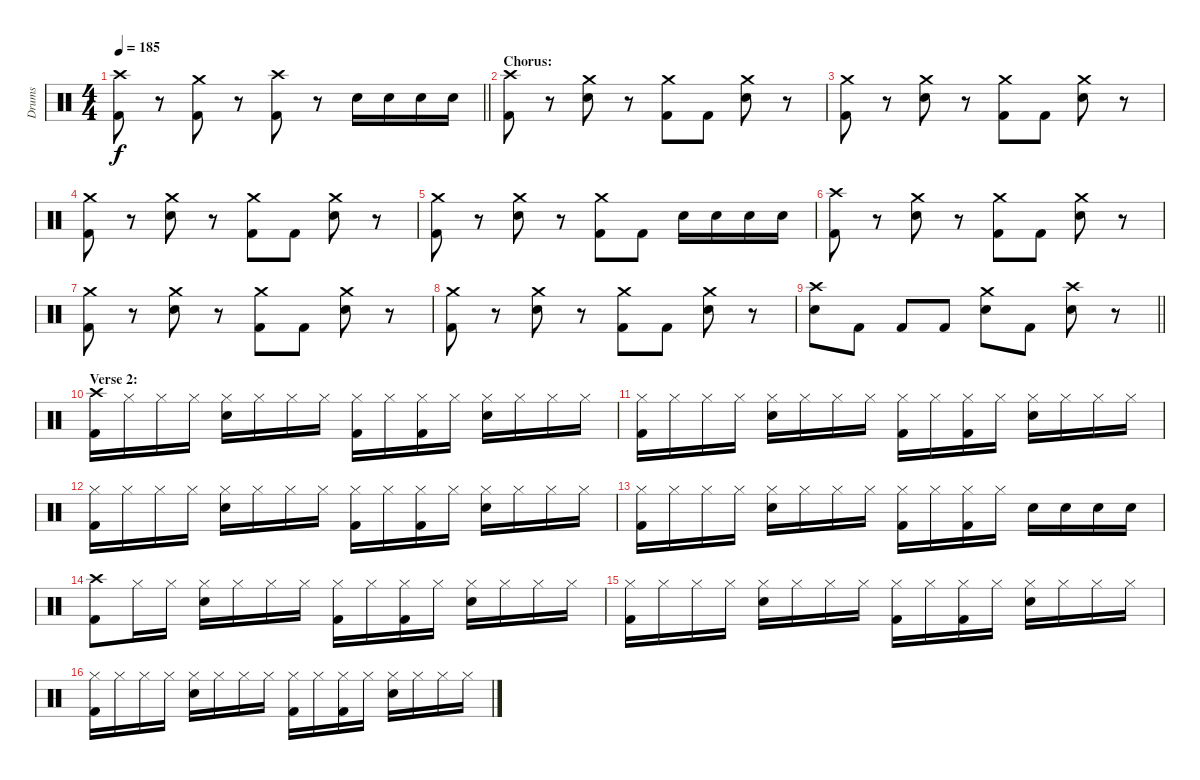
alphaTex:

\track ("Drums" "Drums") {instrument percussion}
\staff {score}
\articulation defaults
\ts (4 4)
\tempo 185
\clef neutral
\barLineRight lightlight
\ks c
("Crash high (hit)" "Kick (hit) 2").8{dy f} r.8 ("Crash medium (hit)" "Kick (hit) 2").8 r.8 ("Crash high (hit)" "Kick (hit) 2").8 r.8 "Snare (hit) 2".16 "Snare (hit) 2".16 "Snare (hit) 2".16 "Snare (hit) 2".16 |
\section ("" "Chorus:")
("Crash high (hit)" "Kick (hit) 2").8 r.8 ("Crash medium (hit)" "Snare (hit) 2").8 r.8 ("Crash medium (hit)" "Kick (hit) 2").8 "Kick (hit) 2".8 ("Crash medium (hit)" "Snare (hit) 2").8 r.8 |
("Crash medium (hit)" "Kick (hit) 2").8 r.8 ("Crash medium (hit)" "Snare (hit) 2").8 r.8 ("Crash medium (hit)" "Kick (hit) 2").8 "Kick (hit) 2".8 ("Crash medium (hit)" "Snare (hit) 2").8 r.8 |
("Crash medium (hit)" "Kick (hit) 2").8 r.8 ("Crash medium (hit)" "Snare (hit) 2").8 r.8 ("Crash medium (hit)" "Kick (hit) 2").8 "Kick (hit) 2".8 ("Crash medium (hit)" "Snare (hit) 2").8 r.8 |
("Crash medium (hit)" "Kick (hit) 2").8 r.8 ("Crash medium (hit)" "Snare (hit) 2").8 r.8 ("Crash medium (hit)" "Kick (hit) 2").8 "Kick (hit) 2".8 "Snare (hit) 2".16 "Snare (hit) 2".16 "Snare (hit) 2".16 "Snare (hit) 2".16 |
("Crash high (hit)" "Kick (hit) 2").8 r.8 ("Crash medium (hit)" "Snare (hit) 2").8 r.8 ("Crash medium (hit)" "Kick (hit) 2").8 "Kick (hit) 2".8 ("Crash medium (hit)" "Snare (hit) 2").8 r.8 |
("Crash medium (hit)" "Kick (hit) 2").8 r.8 ("Crash medium (hit)" "Snare (hit) 2").8 r.8 ("Crash medium (hit)" "Kick (hit) 2").8 "Kick (hit) 2".8 ("Crash medium (hit)" "Snare (hit) 2").8 r.8 |
("Crash medium (hit)" "Kick (hit) 2").8 r.8 ("Crash medium (hit)" "Snare (hit) 2").8 r.8 ("Crash medium (hit)" "Kick (hit) 2").8 "Kick (hit) 2".8 ("Crash medium (hit)" "Snare (hit) 2").8 r.8 |
\barLineRight lightlight
("Crash high (hit)" "Snare (hit) 2").8 "Kick (hit) 2".8 "Kick (hit) 2".8 "Kick (hit) 2".8 ("Crash medium (hit)" "Snare (hit) 2").8 "Kick (hit) 2".8 ("Crash high (hit)" "Snare (hit) 2").8 r.8 |
\section ("" "Verse 2:")
("Crash high (hit)" "Kick (hit) 2").16 "Hi-Hat (closed)".16 "Hi-Hat (closed)".16 "Hi-Hat (closed)".16 ("Hi-Hat (closed)" "Snare (hit) 2").16 "Hi-Hat (closed)".16 "Hi-Hat (closed)".16 "Hi-Hat (closed)".16 ("Hi-Hat (closed)" "Kick (hit) 2").16 "Hi-Hat (closed)".16 ("Hi-Hat (closed)" "Kick (hit) 2").16 "Hi-Hat (closed)".16 ("Hi-Hat (closed)" "Snare (hit) 2").16 "Hi-Hat (closed)".16 "Hi-Hat (closed)".16 "Hi-Hat (closed)".16 |
("Hi-Hat (closed)" "Kick (hit) 2").16 "Hi-Hat (closed)".16 "Hi-Hat (closed)".16 "Hi-Hat (closed)".16 ("Hi-Hat (closed)" "Snare (hit) 2").16 "Hi-Hat (closed)".16 "Hi-Hat (closed)".16 "Hi-Hat (closed)".16 ("Hi-Hat (closed)" "Kick (hit) 2").16 "Hi-Hat (closed)".16 ("Hi-Hat (closed)" "Kick (hit) 2").16 "Hi-Hat (closed)".16 ("Hi-Hat (closed)" "Snare (hit) 2").16 "Hi-Hat (closed)".16 "Hi-Hat (closed)".16 "Hi-Hat (closed)".16 |
("Hi-Hat (closed)" "Kick (hit) 2").16 "Hi-Hat (closed)".16 "Hi-Hat (closed)".16 "Hi-Hat (closed)".16 ("Hi-Hat (closed)" "Snare (hit) 2").16 "Hi-Hat (closed)".16 "Hi-Hat (closed)".16 "Hi-Hat (closed)".16 ("Hi-Hat (closed)" "Kick (hit) 2").16 "Hi-Hat (closed)".16 ("Hi-Hat (closed)" "Kick (hit) 2").16 "Hi-Hat (closed)".16 ("Hi-Hat (closed)" "Snare (hit) 2").16 "Hi-Hat (closed)".16 "Hi-Hat (closed)".16 "Hi-Hat (closed)".16 |
("Hi-Hat (closed)" "Kick (hit) 2").16 "Hi-Hat (closed)".16 "Hi-Hat (closed)".16 "Hi-Hat (closed)".16 ("Hi-Hat (closed)" "Snare (hit) 2").16 "Hi-Hat (closed)".16 "Hi-Hat (closed)".16 "Hi-Hat (closed)".16 ("Hi-Hat (closed)" "Kick (hit) 2").16 "Hi-Hat (closed)".16 ("Hi-Hat (closed)" "Kick (hit) 2").16 "Hi-Hat (closed)".16 "Snare (hit) 2".16 "Snare (hit) 2".16 "Snare (hit) 2".16 "Snare (hit) 2".16 |
("Crash high (hit)" "Kick (hit) 2").8 "Hi-Hat (closed)".16 "Hi-Hat (closed)".16 ("Hi-Hat (closed)" "Snare (hit) 2").16 "Hi-Hat (closed)".16 "Hi-Hat (closed)".16 "Hi-Hat (closed)".16 ("Hi-Hat (closed)" "Kick (hit) 2").16 "Hi-Hat (closed)".16 ("Hi-Hat (closed)" "Kick (hit) 2").16 "Hi-Hat (closed)".16 ("Hi-Hat (closed)" "Snare (hit) 2").16 "Hi-Hat (closed)".16 "Hi-Hat (closed)".16 "Hi-Hat (closed)".16 |
("Hi-Hat (closed)" "Kick (hit) 2").16 "Hi-Hat (closed)".16 "Hi-Hat (closed)".16 "Hi-Hat (closed)".16 ("Hi-Hat (closed)" "Snare (hit) 2").16 "Hi-Hat (closed)".16 "Hi-Hat (closed)".16 "Hi-Hat (closed)".16 ("Hi-Hat (closed)" "Kick (hit) 2").16 "Hi-Hat (closed)".16 ("Hi-Hat (closed)" "Kick (hit) 2").16 "Hi-Hat (closed)".16 ("Hi-Hat (closed)" "Snare (hit) 2").16 "Hi-Hat (closed)".16 "Hi-Hat (closed)".16 "Hi-Hat (closed)".16 |
("Hi-Hat (closed)" "Kick (hit) 2").16 "Hi-Hat (closed)".16 "Hi-Hat (closed)".16 "Hi-Hat (closed)".16 ("Hi-Hat (closed)" "Snare (hit) 2").16 "Hi-Hat (closed)".16 "Hi-Hat (closed)".16 "Hi-Hat (closed)".16 ("Hi-Hat (closed)" "Kick (hit) 2").16 "Hi-Hat (closed)".16 ("Hi-Hat (closed)" "Kick (hit) 2").16 "Hi-Hat (closed)".16 ("Hi-Hat (closed)" "Snare (hit) 2").16 "Hi-Hat (closed)".16 "Hi-Hat (closed)".16 "Hi-Hat (closed)".16
